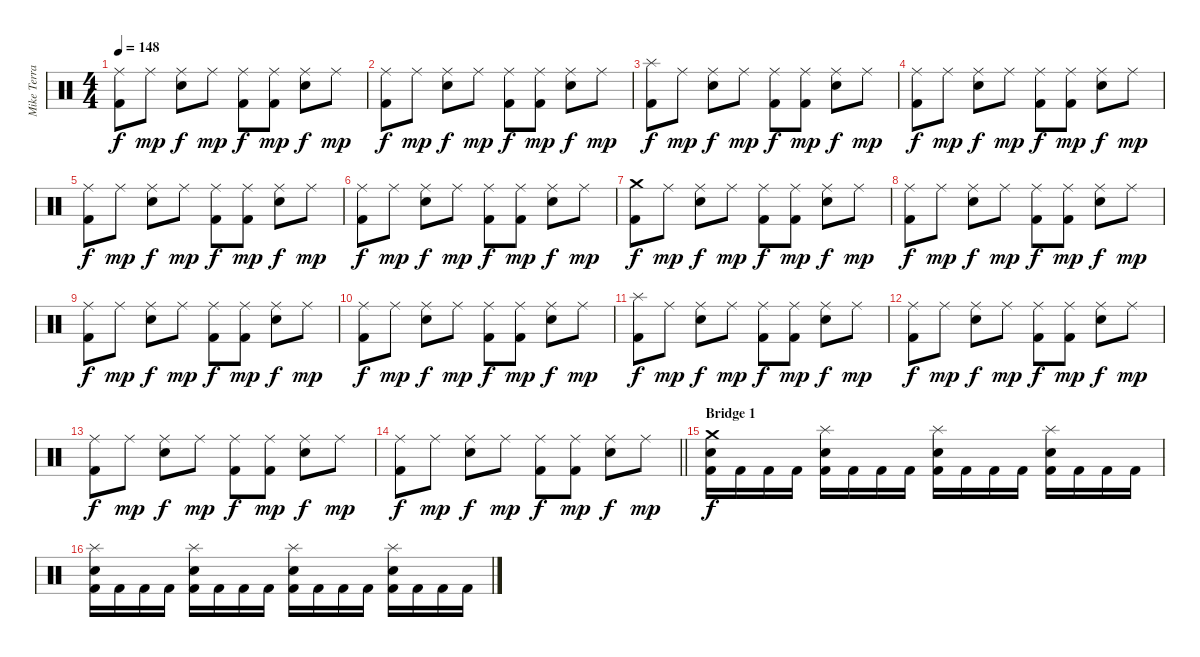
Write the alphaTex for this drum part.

\track ("Mike Terrana" "Mike Terra") {instrument percussion}
\staff {score}
\articulation defaults
\ts (4 4)
\tempo 148
\clef neutral
\ks c
("Ride (middle)" "Kick (hit) 2").8{dy f} "Ride (middle)".8{dy mp} ("Ride (middle)" "Snare (hit) 2").8{dy f} "Ride (middle)".8{dy mp} ("Ride (middle)" "Kick (hit) 2").8{dy f} ("Ride (middle)" "Kick (hit) 2").8{dy mp} ("Ride (middle)" "Snare (hit) 2").8{dy f} "Ride (middle)".8{dy mp} |
("Ride (middle)" "Kick (hit) 2").8{dy f} "Ride (middle)".8{dy mp} ("Ride (middle)" "Snare (hit) 2").8{dy f} "Ride (middle)".8{dy mp} ("Ride (middle)" "Kick (hit) 2").8{dy f} ("Ride (middle)" "Kick (hit) 2").8{dy mp} ("Ride (middle)" "Snare (hit) 2").8{dy f} "Ride (middle)".8{dy mp} |
("Splash (hit)" "Kick (hit) 2").8{dy f} "Ride (middle)".8{dy mp} ("Ride (middle)" "Snare (hit) 2").8{dy f} "Ride (middle)".8{dy mp} ("Ride (middle)" "Kick (hit) 2").8{dy f} ("Ride (middle)" "Kick (hit) 2").8{dy mp} ("Ride (middle)" "Snare (hit) 2").8{dy f} "Ride (middle)".8{dy mp} |
("Ride (middle)" "Kick (hit) 2").8{dy f} "Ride (middle)".8{dy mp} ("Ride (middle)" "Snare (hit) 2").8{dy f} "Ride (middle)".8{dy mp} ("Ride (middle)" "Kick (hit) 2").8{dy f} ("Ride (middle)" "Kick (hit) 2").8{dy mp} ("Ride (middle)" "Snare (hit) 2").8{dy f} "Ride (middle)".8{dy mp} |
("Ride (middle)" "Kick (hit) 2").8{dy f} "Ride (middle)".8{dy mp} ("Ride (middle)" "Snare (hit) 2").8{dy f} "Ride (middle)".8{dy mp} ("Ride (middle)" "Kick (hit) 2").8{dy f} ("Ride (middle)" "Kick (hit) 2").8{dy mp} ("Ride (middle)" "Snare (hit) 2").8{dy f} "Ride (middle)".8{dy mp} |
("Ride (middle)" "Kick (hit) 2").8{dy f} "Ride (middle)".8{dy mp} ("Ride (middle)" "Snare (hit) 2").8{dy f} "Ride (middle)".8{dy mp} ("Ride (middle)" "Kick (hit) 2").8{dy f} ("Ride (middle)" "Kick (hit) 2").8{dy mp} ("Ride (middle)" "Snare (hit) 2").8{dy f} "Ride (middle)".8{dy mp} |
("Crash medium (hit)" "Kick (hit) 2").8{dy f} "Ride (middle)".8{dy mp} ("Ride (middle)" "Snare (hit) 2").8{dy f} "Ride (middle)".8{dy mp} ("Ride (middle)" "Kick (hit) 2").8{dy f} ("Ride (middle)" "Kick (hit) 2").8{dy mp} ("Ride (middle)" "Snare (hit) 2").8{dy f} "Ride (middle)".8{dy mp} |
("Ride (middle)" "Kick (hit) 2").8{dy f} "Ride (middle)".8{dy mp} ("Ride (middle)" "Snare (hit) 2").8{dy f} "Ride (middle)".8{dy mp} ("Ride (middle)" "Kick (hit) 2").8{dy f} ("Ride (middle)" "Kick (hit) 2").8{dy mp} ("Ride (middle)" "Snare (hit) 2").8{dy f} "Ride (middle)".8{dy mp} |
("Ride (middle)" "Kick (hit) 2").8{dy f} "Ride (middle)".8{dy mp} ("Ride (middle)" "Snare (hit) 2").8{dy f} "Ride (middle)".8{dy mp} ("Ride (middle)" "Kick (hit) 2").8{dy f} ("Ride (middle)" "Kick (hit) 2").8{dy mp} ("Ride (middle)" "Snare (hit) 2").8{dy f} "Ride (middle)".8{dy mp} |
("Ride (middle)" "Kick (hit) 2").8{dy f} "Ride (middle)".8{dy mp} ("Ride (middle)" "Snare (hit) 2").8{dy f} "Ride (middle)".8{dy mp} ("Ride (middle)" "Kick (hit) 2").8{dy f} ("Ride (middle)" "Kick (hit) 2").8{dy mp} ("Ride (middle)" "Snare (hit) 2").8{dy f} "Ride (middle)".8{dy mp} |
("Splash (hit)" "Kick (hit) 2").8{dy f} "Ride (middle)".8{dy mp} ("Ride (middle)" "Snare (hit) 2").8{dy f} "Ride (middle)".8{dy mp} ("Ride (middle)" "Kick (hit) 2").8{dy f} ("Ride (middle)" "Kick (hit) 2").8{dy mp} ("Ride (middle)" "Snare (hit) 2").8{dy f} "Ride (middle)".8{dy mp} |
("Ride (middle)" "Kick (hit) 2").8{dy f} "Ride (middle)".8{dy mp} ("Ride (middle)" "Snare (hit) 2").8{dy f} "Ride (middle)".8{dy mp} ("Ride (middle)" "Kick (hit) 2").8{dy f} ("Ride (middle)" "Kick (hit) 2").8{dy mp} ("Ride (middle)" "Snare (hit) 2").8{dy f} "Ride (middle)".8{dy mp} |
("Ride (middle)" "Kick (hit) 2").8{dy f} "Ride (middle)".8{dy mp} ("Ride (middle)" "Snare (hit) 2").8{dy f} "Ride (middle)".8{dy mp} ("Ride (middle)" "Kick (hit) 2").8{dy f} ("Ride (middle)" "Kick (hit) 2").8{dy mp} ("Ride (middle)" "Snare (hit) 2").8{dy f} "Ride (middle)".8{dy mp} |
\barLineRight lightlight
("Ride (middle)" "Kick (hit) 2").8{dy f} "Ride (middle)".8{dy mp} ("Ride (middle)" "Snare (hit) 2").8{dy f} "Ride (middle)".8{dy mp} ("Ride (middle)" "Kick (hit) 2").8{dy f} ("Ride (middle)" "Kick (hit) 2").8{dy mp} ("Ride (middle)" "Snare (hit) 2").8{dy f} "Ride (middle)".8{dy mp} |
\section ("" "Bridge 1")
("Crash medium (hit)" "Snare (hit) 2" "Kick (hit) 2").16{dy f} "Kick (hit) 2".16 "Kick (hit) 2".16 "Kick (hit) 2".16 ("Splash (hit)" "Snare (hit) 2" "Kick (hit) 2").16 "Kick (hit) 2".16 "Kick (hit) 2".16 "Kick (hit) 2".16 ("Splash (hit)" "Snare (hit) 2" "Kick (hit) 2").16 "Kick (hit) 2".16 "Kick (hit) 2".16 "Kick (hit) 2".16 ("Splash (hit)" "Snare (hit) 2" "Kick (hit) 2").16 "Kick (hit) 2".16 "Kick (hit) 2".16 "Kick (hit) 2".16 |
("Splash (hit)" "Snare (hit) 2" "Kick (hit) 2").16 "Kick (hit) 2".16 "Kick (hit) 2".16 "Kick (hit) 2".16 ("Splash (hit)" "Snare (hit) 2" "Kick (hit) 2").16 "Kick (hit) 2".16 "Kick (hit) 2".16 "Kick (hit) 2".16 ("Splash (hit)" "Snare (hit) 2" "Kick (hit) 2").16 "Kick (hit) 2".16 "Kick (hit) 2".16 "Kick (hit) 2".16 ("Splash (hit)" "Snare (hit) 2" "Kick (hit) 2").16 "Kick (hit) 2".16 "Kick (hit) 2".16 "Kick (hit) 2".16
